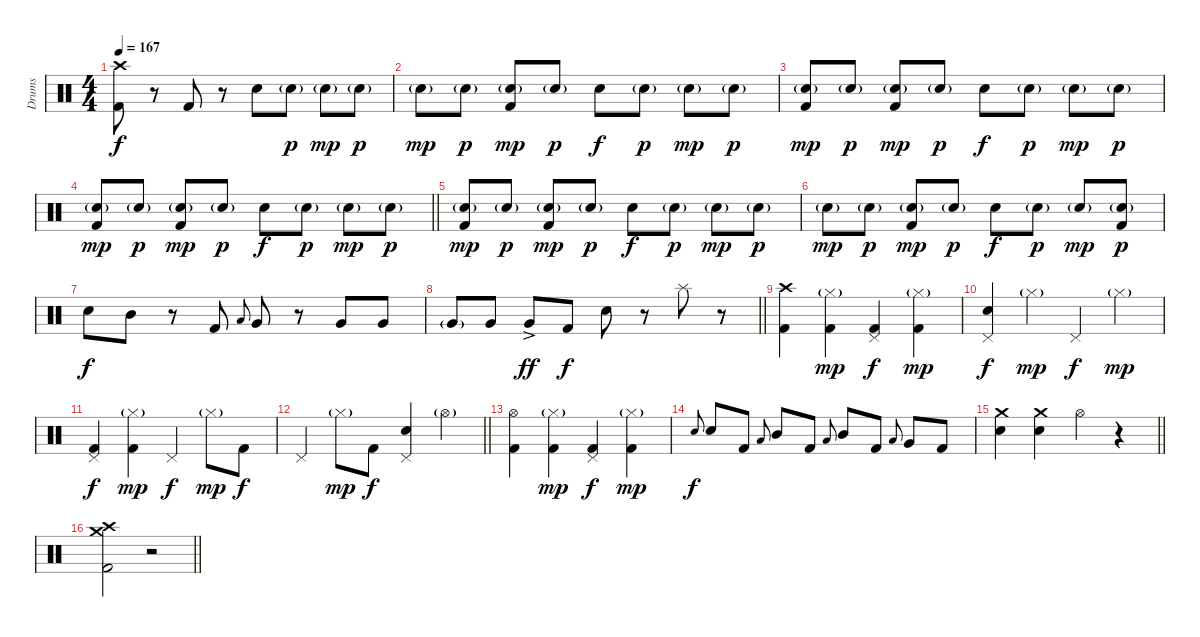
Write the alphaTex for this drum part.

\track ("Drums" "Drums") {instrument percussion}
\staff {score}
\articulation defaults
\ts (4 4)
\section ("" "")
\tempo 167
\clef neutral
\ks c
("Crash high (hit)" "Kick (hit) 2").8{dy f} r.8 "Kick (hit) 2".8 r.8 "Electric Snare (hit)".8 "Electric Snare (hit)"{g}.8{dy p} "Electric Snare (hit)"{g}.8{dy mp} "Electric Snare (hit)"{g}.8{dy p} |
"Electric Snare (hit)"{g}.8{dy mp} "Electric Snare (hit)"{g}.8{dy p} ("Electric Snare (hit)"{g} "Kick (hit) 2").8{dy mp} "Electric Snare (hit)"{g}.8{dy p} "Electric Snare (hit)".8{dy f} "Electric Snare (hit)"{g}.8{dy p} "Electric Snare (hit)"{g}.8{dy mp} "Electric Snare (hit)"{g}.8{dy p} |
("Electric Snare (hit)"{g} "Kick (hit) 2").8{dy mp} "Electric Snare (hit)"{g}.8{dy p} ("Electric Snare (hit)"{g} "Kick (hit) 2").8{dy mp} "Electric Snare (hit)"{g}.8{dy p} "Electric Snare (hit)".8{dy f} "Electric Snare (hit)"{g}.8{dy p} "Electric Snare (hit)"{g}.8{dy mp} "Electric Snare (hit)"{g}.8{dy p} |
\barLineRight lightlight
("Electric Snare (hit)"{g} "Kick (hit) 2").8{dy mp} "Electric Snare (hit)"{g}.8{dy p} ("Electric Snare (hit)"{g} "Kick (hit) 2").8{dy mp} "Electric Snare (hit)"{g}.8{dy p} "Electric Snare (hit)".8{dy f} "Electric Snare (hit)"{g}.8{dy p} "Electric Snare (hit)"{g}.8{dy mp} "Electric Snare (hit)"{g}.8{dy p} |
("Electric Snare (hit)"{g} "Kick (hit) 2").8{dy mp} "Electric Snare (hit)"{g}.8{dy p} ("Electric Snare (hit)"{g} "Kick (hit) 2").8{dy mp} "Electric Snare (hit)"{g}.8{dy p} "Electric Snare (hit)".8{dy f} "Electric Snare (hit)"{g}.8{dy p} "Electric Snare (hit)"{g}.8{dy mp} "Electric Snare (hit)"{g}.8{dy p} |
"Electric Snare (hit)"{g}.8{dy mp} "Electric Snare (hit)"{g}.8{dy p} ("Electric Snare (hit)"{g} "Kick (hit) 2").8{dy mp} "Electric Snare (hit)"{g}.8{dy p} "Electric Snare (hit)".8{dy f} "Electric Snare (hit)"{g}.8{dy p} "Electric Snare (hit)"{g}.8{dy mp} ("Electric Snare (hit)"{g} "Kick (hit) 2").8{dy p} |
"Electric Snare (hit)".8{dy f} "Mid Tom (hit)".8 r.8 "Kick (hit) 2".8 "Low Tom (hit)".8{gr onbeat} "Very Low Tom (hit)".8 r.8 "Very Low Tom (hit)".8 "Very Low Tom (hit)".8 |
\barLineRight lightlight "Very Low Tom (hit)"{g}.8 "Very Low Tom (hit)".8 "Very Low Tom (hit)"{ac}.8{dy ff} "Kick (hit) 2".8{dy f} "Electric Snare (hit)".8
r.8 "Splash (hit)".8 r.8 |
\section ("" "")
("Crash high (hit)" "Kick (hit) 2").4 ("Hi-Hat (closed)"{g} "Kick (hit) 2").4{dy mp} ("Pedal Hi-Hat (hit)" "Kick (hit) 2").4{dy f} ("Hi-Hat (closed)"{g} "Kick (hit) 2").4{dy mp} |
("Pedal Hi-Hat (hit)" "Electric Snare (hit)").4{dy f} "Hi-Hat (closed)"{g}.4{dy mp} "Pedal Hi-Hat (hit)".4{dy f} "Hi-Hat (closed)"{g}.4{dy mp} |
("Pedal Hi-Hat (hit)" "Kick (hit) 2").4{dy f} ("Hi-Hat (closed)"{g} "Kick (hit) 2").4{dy mp} "Pedal Hi-Hat (hit)".4{dy f} "Hi-Hat (closed)"{g}.8{dy mp} "Kick (hit) 2".8{dy f} |
\barLineRight lightlight "Pedal Hi-Hat (hit)".4 "Hi-Hat (closed)"{g}.8{dy mp} "Kick (hit) 2".8{dy f}
("Pedal Hi-Hat (hit)" "Electric Snare (hit)").4 "Hi-Hat (open)"{g}.4 |
("Hi-Hat (open)" "Kick (hit) 2").4 ("Hi-Hat (closed)"{g} "Kick (hit) 2").4{dy mp} ("Pedal Hi-Hat (hit)" "Kick (hit) 2").4{dy f} ("Hi-Hat (closed)"{g} "Kick (hit) 2").4{dy mp} |
"Electric Snare (hit)".8{gr onbeat dy f} "Electric Snare (hit)".8 "Kick (hit) 2".8 "Low Tom (hit)".8{gr onbeat} "Mid Tom (hit)".8 "Kick (hit) 2".8 "Low Tom (hit)".8{gr onbeat} "Mid Tom (hit)".8 "Kick (hit) 2".8 "Low Tom (hit)".8{gr onbeat} "Very Low Tom (hit)".8 "Kick (hit) 2".8 |
\barLineRight lightlight
("Crash medium (hit)" "Electric Snare (hit)").4 ("Crash medium (hit)" "Electric Snare (hit)").4 "Hi-Hat (open)".4 r.4 |
\barLineRight lightlight
("Crash high (hit)" "Crash medium (hit)" "Kick (hit) 2").2 r.2
